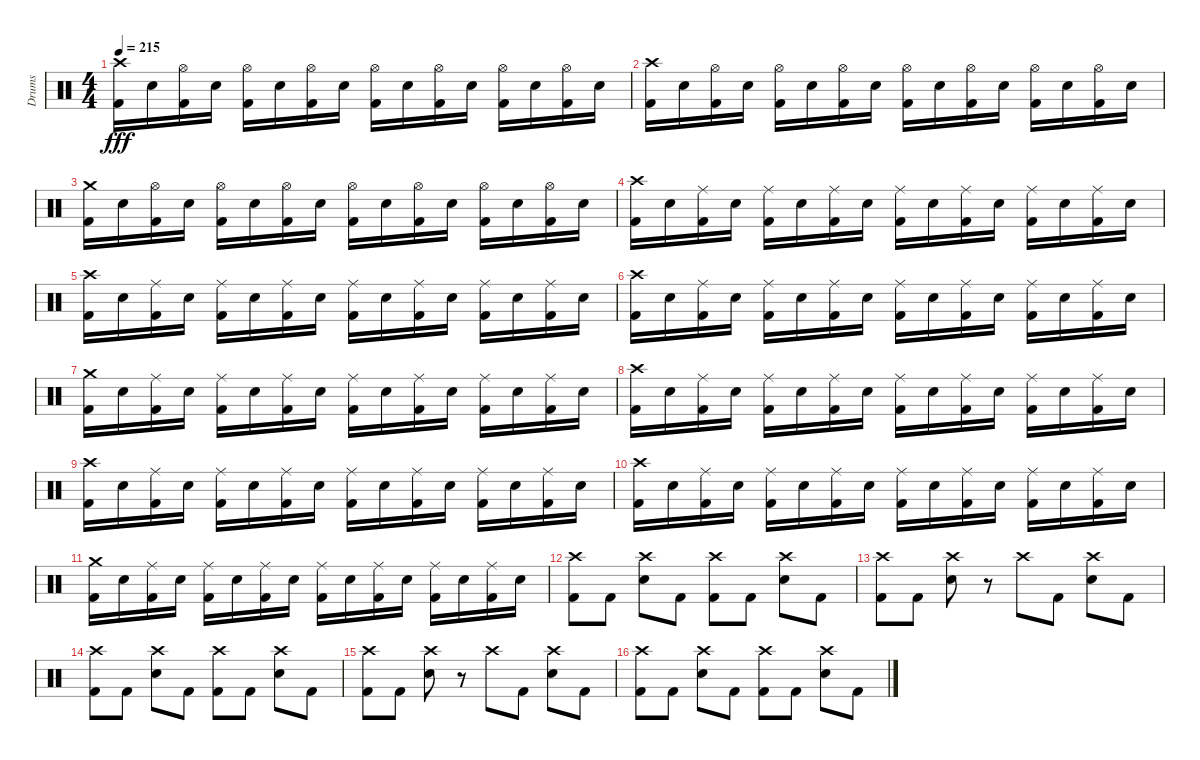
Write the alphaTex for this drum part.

\track ("Drums" "Drums") {instrument percussion}
\staff {score}
\articulation defaults
\ts (4 4)
\tempo 215
\clef neutral
\ks c
("Crash high (hit)" "Kick (hit) 2").16{dy fff} "Electric Snare (hit)".16 ("Hi-Hat (open)" "Kick (hit) 2").16 "Electric Snare (hit)".16 ("Hi-Hat (open)" "Kick (hit) 2").16 "Electric Snare (hit)".16 ("Hi-Hat (open)" "Kick (hit) 2").16 "Electric Snare (hit)".16 ("Hi-Hat (open)" "Kick (hit) 2").16 "Electric Snare (hit)".16 ("Hi-Hat (open)" "Kick (hit) 2").16 "Electric Snare (hit)".16 ("Hi-Hat (open)" "Kick (hit) 2").16 "Electric Snare (hit)".16 ("Hi-Hat (open)" "Kick (hit) 2").16 "Electric Snare (hit)".16 |
("Crash high (hit)" "Kick (hit) 2").16 "Electric Snare (hit)".16 ("Hi-Hat (open)" "Kick (hit) 2").16 "Electric Snare (hit)".16 ("Hi-Hat (open)" "Kick (hit) 2").16 "Electric Snare (hit)".16 ("Hi-Hat (open)" "Kick (hit) 2").16 "Electric Snare (hit)".16 ("Hi-Hat (open)" "Kick (hit) 2").16 "Electric Snare (hit)".16 ("Hi-Hat (open)" "Kick (hit) 2").16 "Electric Snare (hit)".16 ("Hi-Hat (open)" "Kick (hit) 2").16 "Electric Snare (hit)".16 ("Hi-Hat (open)" "Kick (hit) 2").16 "Electric Snare (hit)".16 |
("Crash medium (hit)" "Kick (hit) 2").16 "Electric Snare (hit)".16 ("Hi-Hat (open)" "Kick (hit) 2").16 "Electric Snare (hit)".16 ("Hi-Hat (open)" "Kick (hit) 2").16 "Electric Snare (hit)".16 ("Hi-Hat (open)" "Kick (hit) 2").16 "Electric Snare (hit)".16 ("Hi-Hat (open)" "Kick (hit) 2").16 "Electric Snare (hit)".16 ("Hi-Hat (open)" "Kick (hit) 2").16 "Electric Snare (hit)".16 ("Hi-Hat (open)" "Kick (hit) 2").16 "Electric Snare (hit)".16 ("Hi-Hat (open)" "Kick (hit) 2").16 "Electric Snare (hit)".16 |
("Crash high (hit)" "Kick (hit) 2").16 "Electric Snare (hit)".16 ("Ride (middle)" "Kick (hit) 2").16 "Electric Snare (hit)".16 ("Ride (middle)" "Kick (hit) 2").16 "Electric Snare (hit)".16 ("Ride (middle)" "Kick (hit) 2").16 "Electric Snare (hit)".16 ("Ride (middle)" "Kick (hit) 2").16 "Electric Snare (hit)".16 ("Ride (middle)" "Kick (hit) 2").16 "Electric Snare (hit)".16 ("Ride (middle)" "Kick (hit) 2").16 "Electric Snare (hit)".16 ("Ride (middle)" "Kick (hit) 2").16 "Electric Snare (hit)".16 |
("Crash high (hit)" "Kick (hit) 2").16 "Electric Snare (hit)".16 ("Ride (middle)" "Kick (hit) 2").16 "Electric Snare (hit)".16 ("Ride (middle)" "Kick (hit) 2").16 "Electric Snare (hit)".16 ("Ride (middle)" "Kick (hit) 2").16 "Electric Snare (hit)".16 ("Ride (middle)" "Kick (hit) 2").16 "Electric Snare (hit)".16 ("Ride (middle)" "Kick (hit) 2").16 "Electric Snare (hit)".16 ("Ride (middle)" "Kick (hit) 2").16 "Electric Snare (hit)".16 ("Ride (middle)" "Kick (hit) 2").16 "Electric Snare (hit)".16 |
("Crash high (hit)" "Kick (hit) 2").16 "Electric Snare (hit)".16 ("Ride (middle)" "Kick (hit) 2").16 "Electric Snare (hit)".16 ("Ride (middle)" "Kick (hit) 2").16 "Electric Snare (hit)".16 ("Ride (middle)" "Kick (hit) 2").16 "Electric Snare (hit)".16 ("Ride (middle)" "Kick (hit) 2").16 "Electric Snare (hit)".16 ("Ride (middle)" "Kick (hit) 2").16 "Electric Snare (hit)".16 ("Ride (middle)" "Kick (hit) 2").16 "Electric Snare (hit)".16 ("Ride (middle)" "Kick (hit) 2").16 "Electric Snare (hit)".16 |
("Crash medium (hit)" "Kick (hit) 2").16 "Electric Snare (hit)".16 ("Ride (middle)" "Kick (hit) 2").16 "Electric Snare (hit)".16 ("Ride (middle)" "Kick (hit) 2").16 "Electric Snare (hit)".16 ("Ride (middle)" "Kick (hit) 2").16 "Electric Snare (hit)".16 ("Ride (middle)" "Kick (hit) 2").16 "Electric Snare (hit)".16 ("Ride (middle)" "Kick (hit) 2").16 "Electric Snare (hit)".16 ("Ride (middle)" "Kick (hit) 2").16 "Electric Snare (hit)".16 ("Ride (middle)" "Kick (hit) 2").16 "Electric Snare (hit)".16 |
("Crash high (hit)" "Kick (hit) 2").16 "Electric Snare (hit)".16 ("Ride (middle)" "Kick (hit) 2").16 "Electric Snare (hit)".16 ("Ride (middle)" "Kick (hit) 2").16 "Electric Snare (hit)".16 ("Ride (middle)" "Kick (hit) 2").16 "Electric Snare (hit)".16 ("Ride (middle)" "Kick (hit) 2").16 "Electric Snare (hit)".16 ("Ride (middle)" "Kick (hit) 2").16 "Electric Snare (hit)".16 ("Ride (middle)" "Kick (hit) 2").16 "Electric Snare (hit)".16 ("Ride (middle)" "Kick (hit) 2").16 "Electric Snare (hit)".16 |
("Crash high (hit)" "Kick (hit) 2").16 "Electric Snare (hit)".16 ("Ride (middle)" "Kick (hit) 2").16 "Electric Snare (hit)".16 ("Ride (middle)" "Kick (hit) 2").16 "Electric Snare (hit)".16 ("Ride (middle)" "Kick (hit) 2").16 "Electric Snare (hit)".16 ("Ride (middle)" "Kick (hit) 2").16 "Electric Snare (hit)".16 ("Ride (middle)" "Kick (hit) 2").16 "Electric Snare (hit)".16 ("Ride (middle)" "Kick (hit) 2").16 "Electric Snare (hit)".16 ("Ride (middle)" "Kick (hit) 2").16 "Electric Snare (hit)".16 |
("Crash high (hit)" "Kick (hit) 2").16 "Electric Snare (hit)".16 ("Ride (middle)" "Kick (hit) 2").16 "Electric Snare (hit)".16 ("Ride (middle)" "Kick (hit) 2").16 "Electric Snare (hit)".16 ("Ride (middle)" "Kick (hit) 2").16 "Electric Snare (hit)".16 ("Ride (middle)" "Kick (hit) 2").16 "Electric Snare (hit)".16 ("Ride (middle)" "Kick (hit) 2").16 "Electric Snare (hit)".16 ("Ride (middle)" "Kick (hit) 2").16 "Electric Snare (hit)".16 ("Ride (middle)" "Kick (hit) 2").16 "Electric Snare (hit)".16 |
("Crash medium (hit)" "Kick (hit) 2").16 "Electric Snare (hit)".16 ("Ride (middle)" "Kick (hit) 2").16 "Electric Snare (hit)".16 ("Ride (middle)" "Kick (hit) 2").16 "Electric Snare (hit)".16 ("Ride (middle)" "Kick (hit) 2").16 "Electric Snare (hit)".16 ("Ride (middle)" "Kick (hit) 2").16 "Electric Snare (hit)".16 ("Ride (middle)" "Kick (hit) 2").16 "Electric Snare (hit)".16 ("Ride (middle)" "Kick (hit) 2").16 "Electric Snare (hit)".16 ("Ride (middle)" "Kick (hit) 2").16 "Electric Snare (hit)".16 |
("Crash high (hit)" "Kick (hit) 2").8 "Kick (hit) 2".8 ("Crash high (hit)" "Electric Snare (hit)").8 "Kick (hit) 2".8 ("Crash high (hit)" "Kick (hit) 2").8 "Kick (hit) 2".8 ("Crash high (hit)" "Electric Snare (hit)").8 "Kick (hit) 2".8 |
("Crash high (hit)" "Kick (hit) 2").8 "Kick (hit) 2".8 ("Crash high (hit)" "Electric Snare (hit)").8 r.8 "Crash high (hit)".8 "Kick (hit) 2".8 ("Crash high (hit)" "Electric Snare (hit)").8 "Kick (hit) 2".8 |
("Crash high (hit)" "Kick (hit) 2").8 "Kick (hit) 2".8 ("Crash high (hit)" "Electric Snare (hit)").8 "Kick (hit) 2".8 ("Crash high (hit)" "Kick (hit) 2").8 "Kick (hit) 2".8 ("Crash high (hit)" "Electric Snare (hit)").8 "Kick (hit) 2".8 |
("Crash high (hit)" "Kick (hit) 2").8 "Kick (hit) 2".8 ("Crash high (hit)" "Electric Snare (hit)").8 r.8 "Crash high (hit)".8 "Kick (hit) 2".8 ("Crash high (hit)" "Electric Snare (hit)").8 "Kick (hit) 2".8 |
("Crash high (hit)" "Kick (hit) 2").8 "Kick (hit) 2".8 ("Crash high (hit)" "Electric Snare (hit)").8 "Kick (hit) 2".8 ("Crash high (hit)" "Kick (hit) 2").8 "Kick (hit) 2".8 ("Crash high (hit)" "Electric Snare (hit)").8 "Kick (hit) 2".8
